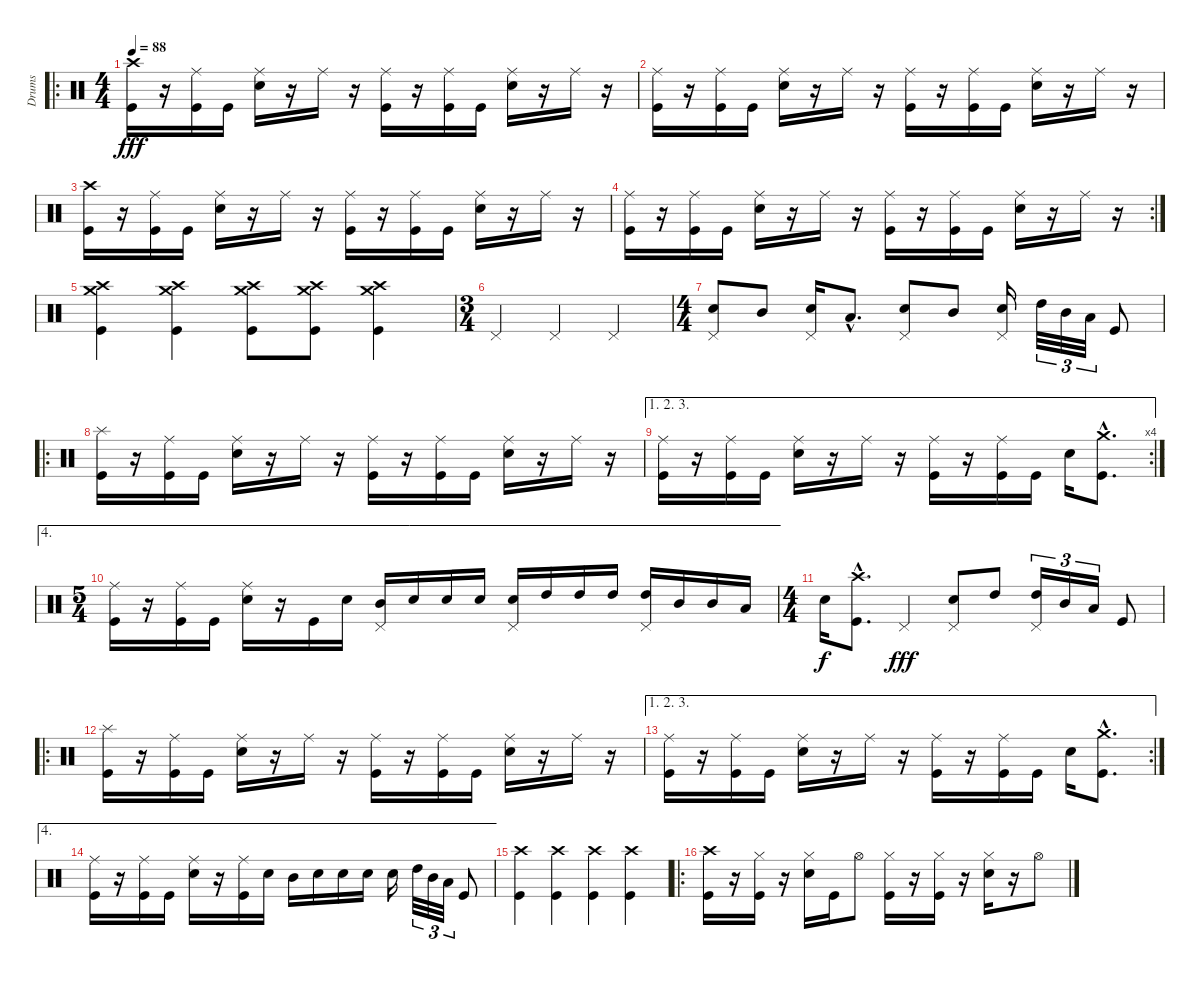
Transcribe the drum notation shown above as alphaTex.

\track ("Drums" "Drums") {instrument percussion}
\staff {score}
\articulation defaults
\ro
\ts (4 4)
\tempo 88
\clef neutral
\ks c
("Crash high (hit)" "Kick (hit)").16{dy fff} r.16 ("Ride (middle)" "Kick (hit)").16 "Kick (hit)".16 ("Ride (middle)" "Electric Snare (hit)").16 r.16 "Ride (middle)".16 r.16 ("Ride (middle)" "Kick (hit)").16 r.16 ("Ride (middle)" "Kick (hit)").16 "Kick (hit)".16 ("Ride (middle)" "Electric Snare (hit)").16 r.16 "Ride (middle)".16 r.16 |
("Ride (middle)" "Kick (hit)").16 r.16 ("Ride (middle)" "Kick (hit)").16 "Kick (hit)".16 ("Ride (middle)" "Electric Snare (hit)").16 r.16 "Ride (middle)".16 r.16 ("Ride (middle)" "Kick (hit)").16 r.16 ("Ride (middle)" "Kick (hit)").16 "Kick (hit)".16 ("Ride (middle)" "Electric Snare (hit)").16 r.16 "Ride (middle)".16 r.16 |
("Crash high (hit)" "Kick (hit)").16 r.16 ("Ride (middle)" "Kick (hit)").16 "Kick (hit)".16 ("Ride (middle)" "Electric Snare (hit)").16 r.16 "Ride (middle)".16 r.16 ("Ride (middle)" "Kick (hit)").16 r.16 ("Ride (middle)" "Kick (hit)").16 "Kick (hit)".16 ("Ride (middle)" "Electric Snare (hit)").16 r.16 "Ride (middle)".16 r.16 |
\rc 2
("Ride (middle)" "Kick (hit)").16 r.16 ("Ride (middle)" "Kick (hit)").16 "Kick (hit)".16 ("Ride (middle)" "Electric Snare (hit)").16 r.16 "Ride (middle)".16 r.16 ("Ride (middle)" "Kick (hit)").16 r.16 ("Ride (middle)" "Kick (hit)").16 "Kick (hit)".16 ("Ride (middle)" "Electric Snare (hit)").16 r.16 "Ride (middle)".16 r.16 |
("Crash medium (hit)" "Crash high (hit)" "Kick (hit)").4 ("Crash medium (hit)" "Crash high (hit)" "Kick (hit)").4 ("Crash medium (hit)" "Crash high (hit)" "Kick (hit)").8 ("Crash medium (hit)" "Crash high (hit)" "Kick (hit)").8 ("Crash medium (hit)" "Crash high (hit)" "Kick (hit)").4 |
\ts (3 4)
"Pedal Hi-Hat (hit)".4 "Pedal Hi-Hat (hit)".4 "Pedal Hi-Hat (hit)".4 |
\ts (4 4)
("Pedal Hi-Hat (hit)" "Electric Snare (hit)").8 "Mid Tom (hit)".8 ("Pedal Hi-Hat (hit)" "Electric Snare (hit)").16 "Low Tom (hit)"{hac}.8{d} ("Pedal Hi-Hat (hit)" "Electric Snare (hit)").8 "Mid Tom (hit)".8 ("Pedal Hi-Hat (hit)" "Electric Snare (hit)").16 "High Tom (hit)".32{tu (3 2)} "Mid Tom (hit)".32{tu (3 2)} "Low Tom (hit)".32{tu (3 2)} "Kick (hit)".8 |
\ro
("Splash (hit)" "Kick (hit)").16 r.16 ("Ride (middle)" "Kick (hit)").16 "Kick (hit)".16 ("Ride (middle)" "Electric Snare (hit)").16 r.16 "Ride (middle)".16 r.16 ("Ride (middle)" "Kick (hit)").16 r.16 ("Ride (middle)" "Kick (hit)").16 "Kick (hit)".16 ("Ride (middle)" "Electric Snare (hit)").16 r.16 "Ride (middle)".16 r.16 |
\ae (1 2 3)
\rc 4
("Ride (middle)" "Kick (hit)").16 r.16 ("Ride (middle)" "Kick (hit)").16 "Kick (hit)".16 ("Ride (middle)" "Electric Snare (hit)").16 r.16 "Ride (middle)".16 r.16 ("Ride (middle)" "Kick (hit)").16 r.16 ("Ride (middle)" "Kick (hit)").16 "Kick (hit)".16 "Electric Snare (hit)".16 ("Crash medium (hit)"{hac} "Kick (hit)"{hac}).8{d} |
\ae 4
\ts (5 4)
("Ride (middle)" "Kick (hit)").16 r.16 ("Ride (middle)" "Kick (hit)").16 "Kick (hit)".16 ("Ride (middle)" "Electric Snare (hit)").16 r.16 "Kick (hit)".16 "Electric Snare (hit)".16 ("Pedal Hi-Hat (hit)" "Mid Tom (hit)").16 "Electric Snare (hit)".16 "Electric Snare (hit)".16 "Electric Snare (hit)".16 ("Pedal Hi-Hat (hit)" "Electric Snare (hit)").16 "High Tom (hit)".16 "High Tom (hit)".16 "High Tom (hit)".16 ("Pedal Hi-Hat (hit)" "High Tom (hit)").16 "Mid Tom (hit)".16 "Mid Tom (hit)".16 "Low Tom (hit)".16 |
\ts (4 4)
"Electric Snare (hit)".16{dy f} ("Crash high (hit)"{hac} "Kick (hit)"{hac}).8{d} "Pedal Hi-Hat (hit)".4{dy fff} ("Pedal Hi-Hat (hit)" "Electric Snare (hit)").8 "High Tom (hit)".8 ("Pedal Hi-Hat (hit)" "High Tom (hit)").16{tu (3 2)} "Mid Tom (hit)".16{tu (3 2)} "Low Tom (hit)".16{tu (3 2)} "Kick (hit)".8 |
\ro
("Splash (hit)" "Kick (hit)").16 r.16 ("Ride (middle)" "Kick (hit)").16 "Kick (hit)".16 ("Ride (middle)" "Electric Snare (hit)").16 r.16 "Ride (middle)".16 r.16 ("Ride (middle)" "Kick (hit)").16 r.16 ("Ride (middle)" "Kick (hit)").16 "Kick (hit)".16 ("Ride (middle)" "Electric Snare (hit)").16 r.16 "Ride (middle)".16 r.16 |
\ae (1 2 3)
\rc 2
("Ride (middle)" "Kick (hit)").16 r.16 ("Ride (middle)" "Kick (hit)").16 "Kick (hit)".16 ("Ride (middle)" "Electric Snare (hit)").16 r.16 "Ride (middle)".16 r.16 ("Ride (middle)" "Kick (hit)").16 r.16 ("Ride (middle)" "Kick (hit)").16 "Kick (hit)".16 "Electric Snare (hit)".16 ("Crash medium (hit)"{hac} "Kick (hit)"{hac}).8{d} |
\ae 4
("Ride (middle)" "Kick (hit)").16 r.16 ("Ride (middle)" "Kick (hit)").16 "Kick (hit)".16 ("Ride (middle)" "Electric Snare (hit)").16 r.16 ("Ride (middle)" "Kick (hit)").16 "Electric Snare (hit)".16 "Mid Tom (hit)".16 "Electric Snare (hit)".16 "Electric Snare (hit)".16 "Electric Snare (hit)".16 "Electric Snare (hit)".16 "High Tom (hit)".32{tu (3 2)} "Mid Tom (hit)".32{tu (3 2)} "Low Tom (hit)".32{tu (3 2)} "Kick (hit)".8 |
("Crash high (hit)" "Kick (hit)").4 ("Crash high (hit)" "Kick (hit)").4 ("Crash high (hit)" "Kick (hit)").4 ("Crash high (hit)" "Kick (hit)").4 |
\ro
("Crash high (hit)" "Kick (hit)").16 r.16 ("Hi-Hat (closed)" "Kick (hit)").16 r.16 ("Hi-Hat (closed)" "Electric Snare (hit)").16 "Kick (hit)".16 "Hi-Hat (open)".8 ("Hi-Hat (closed)" "Kick (hit)").16 r.16 ("Hi-Hat (closed)" "Kick (hit)").16 r.16 ("Hi-Hat (closed)" "Electric Snare (hit)").16 r.16 "Hi-Hat (open)".8
